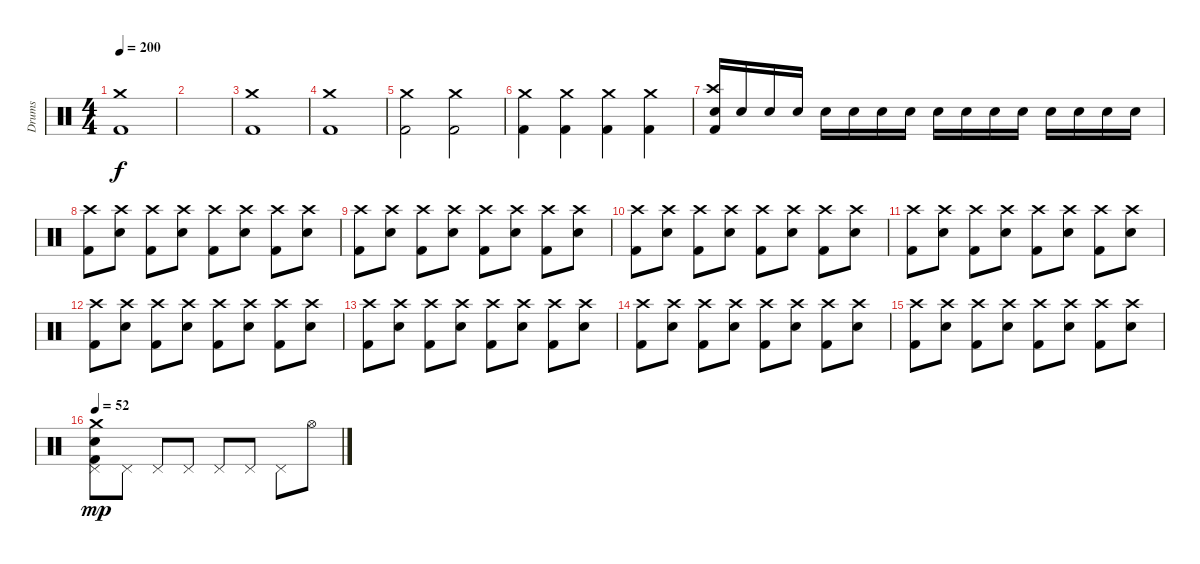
\track ("Drums" "Drums") {instrument percussion}
\staff {score}
\articulation defaults
\ts (4 4)
\tempo 200
\clef neutral
\ks c
("Crash medium (hit)" "Kick (hit) 2").1{dy f} |
|
("Crash medium (hit)" "Kick (hit) 2").1 |
("Crash medium (hit)" "Kick (hit) 2").1 |
("Crash medium (hit)" "Kick (hit) 2").2 ("Crash medium (hit)" "Kick (hit) 2").2 |
("Crash medium (hit)" "Kick (hit) 2").4 ("Crash medium (hit)" "Kick (hit) 2").4 ("Crash medium (hit)" "Kick (hit) 2").4 ("Crash medium (hit)" "Kick (hit) 2").4 |
("Crash high (hit)" "Electric Snare (hit)" "Kick (hit) 2").16 "Electric Snare (hit)".16 "Electric Snare (hit)".16 "Electric Snare (hit)".16 "Electric Snare (hit)".16 "Electric Snare (hit)".16 "Electric Snare (hit)".16 "Electric Snare (hit)".16 "Electric Snare (hit)".16 "Electric Snare (hit)".16 "Electric Snare (hit)".16 "Electric Snare (hit)".16 "Electric Snare (hit)".16 "Electric Snare (hit)".16 "Electric Snare (hit)".16 "Electric Snare (hit)".16 |
("Crash high (hit)" "Kick (hit) 2").8 ("Crash high (hit)" "Electric Snare (hit)").8 ("Crash high (hit)" "Kick (hit) 2").8 ("Crash high (hit)" "Electric Snare (hit)").8 ("Crash high (hit)" "Kick (hit) 2").8 ("Crash high (hit)" "Electric Snare (hit)").8 ("Crash high (hit)" "Kick (hit) 2").8 ("Crash high (hit)" "Electric Snare (hit)").8 |
("Crash high (hit)" "Kick (hit) 2").8 ("Crash high (hit)" "Electric Snare (hit)").8 ("Crash high (hit)" "Kick (hit) 2").8 ("Crash high (hit)" "Electric Snare (hit)").8 ("Crash high (hit)" "Kick (hit) 2").8 ("Crash high (hit)" "Electric Snare (hit)").8 ("Crash high (hit)" "Kick (hit) 2").8 ("Crash high (hit)" "Electric Snare (hit)").8 |
("Crash high (hit)" "Kick (hit) 2").8 ("Crash high (hit)" "Electric Snare (hit)").8 ("Crash high (hit)" "Kick (hit) 2").8 ("Crash high (hit)" "Electric Snare (hit)").8 ("Crash high (hit)" "Kick (hit) 2").8 ("Crash high (hit)" "Electric Snare (hit)").8 ("Crash high (hit)" "Kick (hit) 2").8 ("Crash high (hit)" "Electric Snare (hit)").8 |
("Crash high (hit)" "Kick (hit) 2").8 ("Crash high (hit)" "Electric Snare (hit)").8 ("Crash high (hit)" "Kick (hit) 2").8 ("Crash high (hit)" "Electric Snare (hit)").8 ("Crash high (hit)" "Kick (hit) 2").8 ("Crash high (hit)" "Electric Snare (hit)").8 ("Crash high (hit)" "Kick (hit) 2").8 ("Crash high (hit)" "Electric Snare (hit)").8 |
("Crash high (hit)" "Kick (hit) 2").8 ("Crash high (hit)" "Electric Snare (hit)").8 ("Crash high (hit)" "Kick (hit) 2").8 ("Crash high (hit)" "Electric Snare (hit)").8 ("Crash high (hit)" "Kick (hit) 2").8 ("Crash high (hit)" "Electric Snare (hit)").8 ("Crash high (hit)" "Kick (hit) 2").8 ("Crash high (hit)" "Electric Snare (hit)").8 |
("Crash high (hit)" "Kick (hit) 2").8 ("Crash high (hit)" "Electric Snare (hit)").8 ("Crash high (hit)" "Kick (hit) 2").8 ("Crash high (hit)" "Electric Snare (hit)").8 ("Crash high (hit)" "Kick (hit) 2").8 ("Crash high (hit)" "Electric Snare (hit)").8 ("Crash high (hit)" "Kick (hit) 2").8 ("Crash high (hit)" "Electric Snare (hit)").8 |
("Crash high (hit)" "Kick (hit) 2").8 ("Crash high (hit)" "Electric Snare (hit)").8 ("Crash high (hit)" "Kick (hit) 2").8 ("Crash high (hit)" "Electric Snare (hit)").8 ("Crash high (hit)" "Kick (hit) 2").8 ("Crash high (hit)" "Electric Snare (hit)").8 ("Crash high (hit)" "Kick (hit) 2").8 ("Crash high (hit)" "Electric Snare (hit)").8 |
("Crash high (hit)" "Kick (hit) 2").8 ("Crash high (hit)" "Electric Snare (hit)").8 ("Crash high (hit)" "Kick (hit) 2").8 ("Crash high (hit)" "Electric Snare (hit)").8 ("Crash high (hit)" "Kick (hit) 2").8 ("Crash high (hit)" "Electric Snare (hit)").8 ("Crash high (hit)" "Kick (hit) 2").8 ("Crash high (hit)" "Electric Snare (hit)").8 |
\tempo 52
("Crash medium (hit)" "Pedal Hi-Hat (hit)" "Electric Snare (hit)" "Kick (hit) 2").8{dy mp} "Pedal Hi-Hat (hit)".8 "Pedal Hi-Hat (hit)".8 "Pedal Hi-Hat (hit)".8 "Pedal Hi-Hat (hit)".8 "Pedal Hi-Hat (hit)".8 "Pedal Hi-Hat (hit)".8 "Hi-Hat (open)".8
